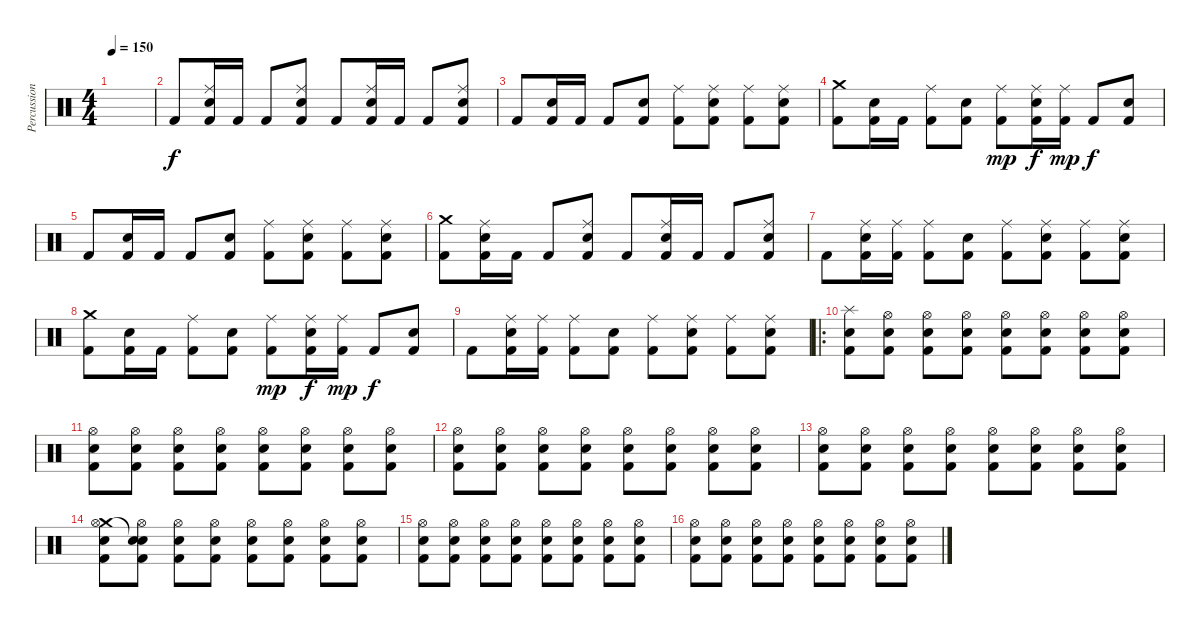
\track ("Percussions" "Percussion") {instrument percussion}
\staff {score}
\articulation defaults
\ts (4 4)
\tempo 150
\clef neutral
\ks c
|
"Kick (hit) 2".8 ("Ride (middle)" "Snare (hit) 2" "Kick (hit) 2").16 "Kick (hit) 2".16 "Kick (hit) 2".8 ("Ride (middle)" "Snare (hit) 2" "Kick (hit) 2").8 "Kick (hit) 2".8 ("Ride (middle)" "Snare (hit) 2" "Kick (hit) 2").16 "Kick (hit) 2".16 "Kick (hit) 2".8 ("Ride (middle)" "Snare (hit) 2" "Kick (hit) 2").8 |
"Kick (hit) 2".8 ("Snare (hit) 2" "Kick (hit) 2").16 "Kick (hit) 2".16 "Kick (hit) 2".8 ("Snare (hit) 2" "Kick (hit) 2").8 ("Ride (middle)" "Kick (hit) 2").8 ("Ride (middle)" "Snare (hit) 2" "Kick (hit) 2").8 ("Ride (middle)" "Kick (hit) 2").8 ("Ride (middle)" "Snare (hit) 2" "Kick (hit) 2").8 |
("Crash medium (hit)" "Kick (hit) 2").8 ("Snare (hit) 2" "Kick (hit) 2").16 "Kick (hit) 2".16 ("Ride (middle)" "Kick (hit) 2").8 ("Snare (hit) 2" "Kick (hit) 2").8 ("Ride (middle)" "Kick (hit) 2").8{dy mp} ("Ride (middle)" "Snare (hit) 2" "Kick (hit) 2").16{dy f} ("Ride (middle)" "Kick (hit) 2").16{dy mp} "Kick (hit) 2".8{dy f} ("Snare (hit) 2" "Kick (hit) 2").8 |
"Kick (hit) 2".8 ("Snare (hit) 2" "Kick (hit) 2").16 "Kick (hit) 2".16 "Kick (hit) 2".8 ("Snare (hit) 2" "Kick (hit) 2").8 ("Ride (middle)" "Kick (hit) 2").8 ("Ride (middle)" "Snare (hit) 2" "Kick (hit) 2").8 ("Ride (middle)" "Kick (hit) 2").8 ("Ride (middle)" "Snare (hit) 2" "Kick (hit) 2").8 |
("Crash medium (hit)" "Kick (hit) 2").8 ("Ride (middle)" "Snare (hit) 2" "Kick (hit) 2").16 "Kick (hit) 2".16 "Kick (hit) 2".8 ("Ride (middle)" "Snare (hit) 2" "Kick (hit) 2").8 "Kick (hit) 2".8 ("Ride (middle)" "Snare (hit) 2" "Kick (hit) 2").16 "Kick (hit) 2".16 "Kick (hit) 2".8 ("Ride (middle)" "Snare (hit) 2" "Kick (hit) 2").8 |
"Kick (hit) 2".8 ("Ride (middle)" "Snare (hit) 2" "Kick (hit) 2").16 ("Ride (middle)" "Kick (hit) 2").16 ("Ride (middle)" "Kick (hit) 2").8 ("Snare (hit) 2" "Kick (hit) 2").8 ("Ride (middle)" "Kick (hit) 2").8 ("Ride (middle)" "Snare (hit) 2" "Kick (hit) 2").8 ("Ride (middle)" "Kick (hit) 2").8 ("Ride (middle)" "Snare (hit) 2" "Kick (hit) 2").8 |
("Crash medium (hit)" "Kick (hit) 2").8 ("Snare (hit) 2" "Kick (hit) 2").16 "Kick (hit) 2".16 ("Ride (middle)" "Kick (hit) 2").8 ("Snare (hit) 2" "Kick (hit) 2").8 ("Ride (middle)" "Kick (hit) 2").8{dy mp} ("Ride (middle)" "Snare (hit) 2" "Kick (hit) 2").16{dy f} ("Ride (middle)" "Kick (hit) 2").16{dy mp} "Kick (hit) 2".8{dy f} ("Snare (hit) 2" "Kick (hit) 2").8 |
"Kick (hit) 2".8 ("Ride (middle)" "Snare (hit) 2" "Kick (hit) 2").16 ("Ride (middle)" "Kick (hit) 2").16 ("Ride (middle)" "Kick (hit) 2").8 ("Snare (hit) 2" "Kick (hit) 2").8 ("Ride (middle)" "Kick (hit) 2").8 ("Ride (middle)" "Snare (hit) 2" "Kick (hit) 2").8 ("Ride (middle)" "Kick (hit) 2").8 ("Ride (middle)" "Snare (hit) 2" "Kick (hit) 2").8 |
\ro
("Splash (hit)" "Snare (hit) 2" "Kick (hit) 2").8 ("Hi-Hat (open)" "Snare (hit) 2" "Kick (hit) 2").8 ("Hi-Hat (open)" "Snare (hit) 2" "Kick (hit) 2").8 ("Hi-Hat (open)" "Snare (hit) 2" "Kick (hit) 2").8 ("Hi-Hat (open)" "Snare (hit) 2" "Kick (hit) 2").8 ("Hi-Hat (open)" "Snare (hit) 2" "Kick (hit) 2").8 ("Hi-Hat (open)" "Snare (hit) 2" "Kick (hit) 2").8 ("Hi-Hat (open)" "Snare (hit) 2" "Kick (hit) 2").8 |
("Hi-Hat (open)" "Snare (hit) 2" "Kick (hit) 2").8 ("Hi-Hat (open)" "Snare (hit) 2" "Kick (hit) 2").8 ("Hi-Hat (open)" "Snare (hit) 2" "Kick (hit) 2").8 ("Hi-Hat (open)" "Snare (hit) 2" "Kick (hit) 2").8 ("Hi-Hat (open)" "Snare (hit) 2" "Kick (hit) 2").8 ("Hi-Hat (open)" "Snare (hit) 2" "Kick (hit) 2").8 ("Hi-Hat (open)" "Snare (hit) 2" "Kick (hit) 2").8 ("Hi-Hat (open)" "Snare (hit) 2" "Kick (hit) 2").8 |
("Hi-Hat (open)" "Snare (hit) 2" "Kick (hit) 2").8 ("Hi-Hat (open)" "Snare (hit) 2" "Kick (hit) 2").8 ("Hi-Hat (open)" "Snare (hit) 2" "Kick (hit) 2").8 ("Hi-Hat (open)" "Snare (hit) 2" "Kick (hit) 2").8 ("Hi-Hat (open)" "Snare (hit) 2" "Kick (hit) 2").8 ("Hi-Hat (open)" "Snare (hit) 2" "Kick (hit) 2").8 ("Hi-Hat (open)" "Snare (hit) 2" "Kick (hit) 2").8 ("Hi-Hat (open)" "Snare (hit) 2" "Kick (hit) 2").8 |
("Hi-Hat (open)" "Snare (hit) 2" "Kick (hit) 2").8 ("Hi-Hat (open)" "Snare (hit) 2" "Kick (hit) 2").8 ("Hi-Hat (open)" "Snare (hit) 2" "Kick (hit) 2").8 ("Hi-Hat (open)" "Snare (hit) 2" "Kick (hit) 2").8 ("Hi-Hat (open)" "Snare (hit) 2" "Kick (hit) 2").8 ("Hi-Hat (open)" "Snare (hit) 2" "Kick (hit) 2").8 ("Hi-Hat (open)" "Snare (hit) 2" "Kick (hit) 2").8 ("Hi-Hat (open)" "Snare (hit) 2" "Kick (hit) 2").8 |
("Crash medium (hit)" "Hi-Hat (open)" "Snare (hit) 2" "Kick (hit) 2").8 ("Snare (hit)"{t} "Hi-Hat (open)" "Snare (hit) 2" "Kick (hit) 2").8 ("Hi-Hat (open)" "Snare (hit) 2" "Kick (hit) 2").8 ("Hi-Hat (open)" "Snare (hit) 2" "Kick (hit) 2").8 ("Hi-Hat (open)" "Snare (hit) 2" "Kick (hit) 2").8 ("Hi-Hat (open)" "Snare (hit) 2" "Kick (hit) 2").8 ("Hi-Hat (open)" "Snare (hit) 2" "Kick (hit) 2").8 ("Hi-Hat (open)" "Snare (hit) 2" "Kick (hit) 2").8 |
("Hi-Hat (open)" "Snare (hit) 2" "Kick (hit) 2").8 ("Hi-Hat (open)" "Snare (hit) 2" "Kick (hit) 2").8 ("Hi-Hat (open)" "Snare (hit) 2" "Kick (hit) 2").8 ("Hi-Hat (open)" "Snare (hit) 2" "Kick (hit) 2").8 ("Hi-Hat (open)" "Snare (hit) 2" "Kick (hit) 2").8 ("Hi-Hat (open)" "Snare (hit) 2" "Kick (hit) 2").8 ("Hi-Hat (open)" "Snare (hit) 2" "Kick (hit) 2").8 ("Hi-Hat (open)" "Snare (hit) 2" "Kick (hit) 2").8 |
("Hi-Hat (open)" "Snare (hit) 2" "Kick (hit) 2").8 ("Hi-Hat (open)" "Snare (hit) 2" "Kick (hit) 2").8 ("Hi-Hat (open)" "Snare (hit) 2" "Kick (hit) 2").8 ("Hi-Hat (open)" "Snare (hit) 2" "Kick (hit) 2").8 ("Hi-Hat (open)" "Snare (hit) 2" "Kick (hit) 2").8 ("Hi-Hat (open)" "Snare (hit) 2" "Kick (hit) 2").8 ("Hi-Hat (open)" "Snare (hit) 2" "Kick (hit) 2").8 ("Hi-Hat (open)" "Snare (hit) 2" "Kick (hit) 2").8
